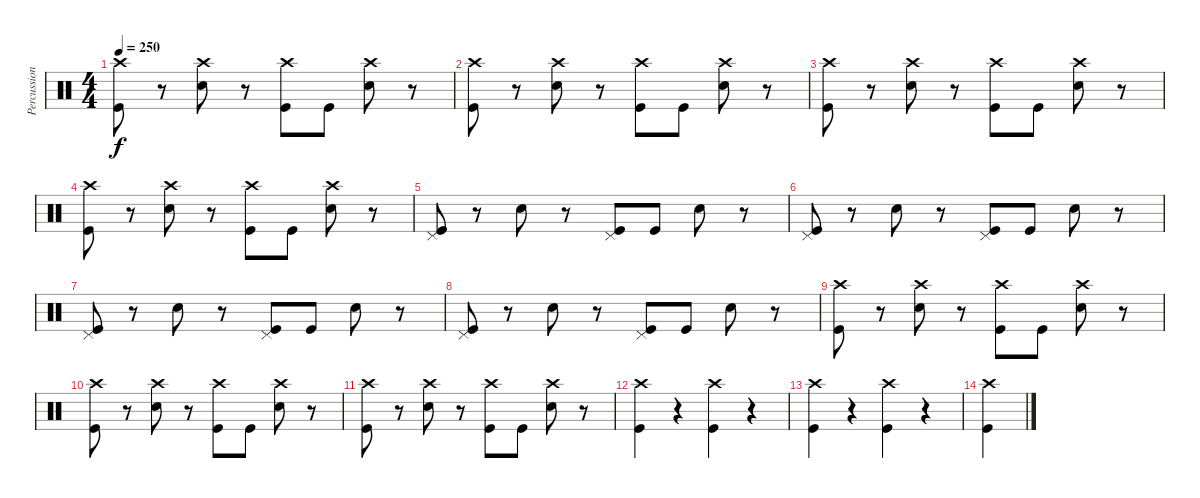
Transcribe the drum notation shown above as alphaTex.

\track ("Percussion" "Percussion") {instrument percussion}
\staff {score}
\articulation defaults
\ts (4 4)
\tempo 250
\clef neutral
\ks c
("Crash high (hit)" "Kick (hit)").8{dy f} r.8 ("Crash high (hit)" "Snare (hit) 2").8 r.8 ("Crash high (hit)" "Kick (hit)").8 "Kick (hit)".8 ("Crash high (hit)" "Snare (hit) 2").8 r.8 |
("Crash high (hit)" "Kick (hit)").8 r.8 ("Crash high (hit)" "Snare (hit) 2").8 r.8 ("Crash high (hit)" "Kick (hit)").8 "Kick (hit)".8 ("Crash high (hit)" "Snare (hit) 2").8 r.8 |
("Crash high (hit)" "Kick (hit)").8 r.8 ("Crash high (hit)" "Snare (hit) 2").8 r.8 ("Crash high (hit)" "Kick (hit)").8 "Kick (hit)".8 ("Crash high (hit)" "Snare (hit) 2").8 r.8 |
("Crash high (hit)" "Kick (hit)").8 r.8 ("Crash high (hit)" "Snare (hit) 2").8 r.8 ("Crash high (hit)" "Kick (hit)").8 "Kick (hit)".8 ("Crash high (hit)" "Snare (hit) 2").8 r.8 |
("Pedal Hi-Hat (hit)" "Kick (hit)").8 r.8 "Snare (hit) 2".8 r.8 ("Pedal Hi-Hat (hit)" "Kick (hit)").8 "Kick (hit)".8 "Snare (hit) 2".8 r.8 |
("Pedal Hi-Hat (hit)" "Kick (hit)").8 r.8 "Snare (hit) 2".8 r.8 ("Pedal Hi-Hat (hit)" "Kick (hit)").8 "Kick (hit)".8 "Snare (hit) 2".8 r.8 |
("Pedal Hi-Hat (hit)" "Kick (hit)").8 r.8 "Snare (hit) 2".8 r.8 ("Pedal Hi-Hat (hit)" "Kick (hit)").8 "Kick (hit)".8 "Snare (hit) 2".8 r.8 |
("Pedal Hi-Hat (hit)" "Kick (hit)").8 r.8 "Snare (hit) 2".8 r.8 ("Pedal Hi-Hat (hit)" "Kick (hit)").8 "Kick (hit)".8 "Snare (hit) 2".8 r.8 |
("Crash high (hit)" "Kick (hit)").8 r.8 ("Crash high (hit)" "Snare (hit) 2").8 r.8 ("Crash high (hit)" "Kick (hit)").8 "Kick (hit)".8 ("Crash high (hit)" "Snare (hit) 2").8 r.8 |
("Crash high (hit)" "Kick (hit)").8 r.8 ("Crash high (hit)" "Snare (hit) 2").8 r.8 ("Crash high (hit)" "Kick (hit)").8 "Kick (hit)".8 ("Crash high (hit)" "Snare (hit) 2").8 r.8 |
("Crash high (hit)" "Kick (hit)").8 r.8 ("Crash high (hit)" "Snare (hit) 2").8 r.8 ("Crash high (hit)" "Kick (hit)").8 "Kick (hit)".8 ("Crash high (hit)" "Snare (hit) 2").8 r.8 |
("Crash high (hit)" "Kick (hit)").4 r.4 ("Crash high (hit)" "Kick (hit)").4 r.4 |
("Crash high (hit)" "Kick (hit)").4 r.4 ("Crash high (hit)" "Kick (hit)").4 r.4 |
("Crash high (hit)" "Kick (hit)").4
